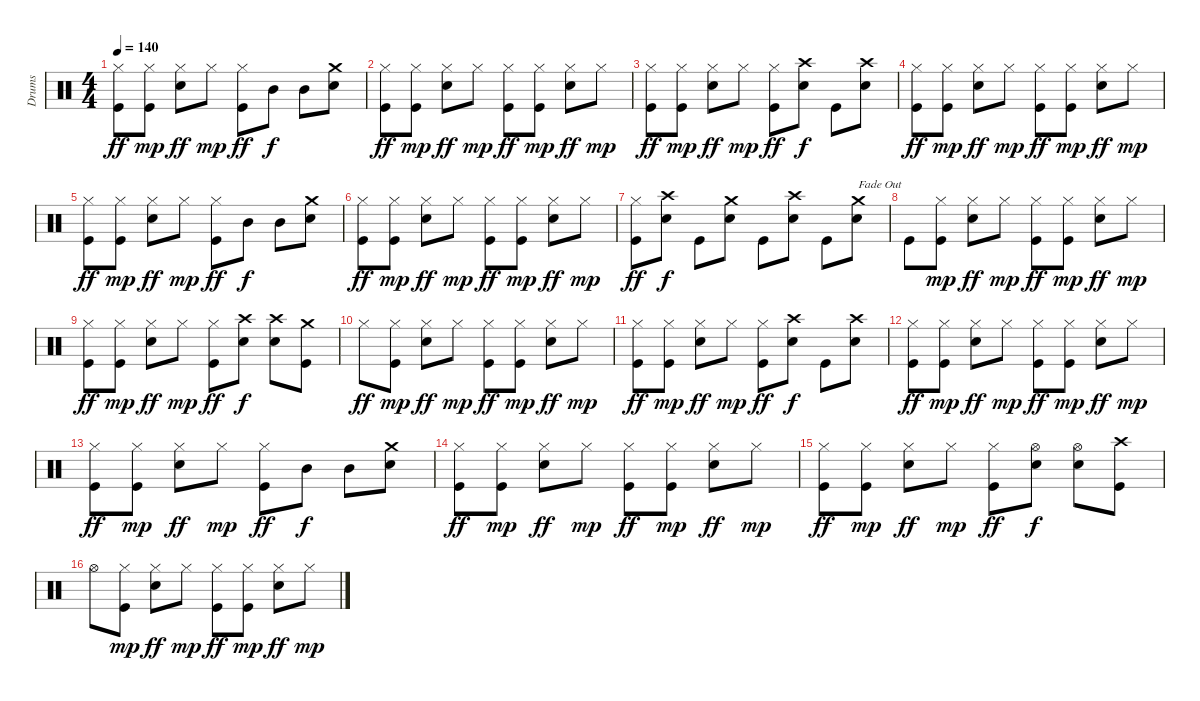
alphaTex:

\track ("Drums" "Drums") {instrument percussion}
\staff {score}
\articulation defaults
\ts (4 4)
\tempo 140
\clef neutral
\ks c
("Hi-Hat (closed)" "Kick (hit)").8{dy ff} ("Hi-Hat (closed)" "Kick (hit)").8{dy mp} ("Hi-Hat (closed)" "Snare (hit) 2").8{dy ff} "Hi-Hat (closed)".8{dy mp} ("Hi-Hat (closed)" "Kick (hit)").8{dy ff} "Mid Tom (hit)".8{dy f} "Mid Tom (hit)".8 ("Crash medium (hit)" "Snare (hit) 2").8 |
("Hi-Hat (closed)" "Kick (hit)").8{dy ff} ("Hi-Hat (closed)" "Kick (hit)").8{dy mp} ("Hi-Hat (closed)" "Snare (hit) 2").8{dy ff} "Hi-Hat (closed)".8{dy mp} ("Hi-Hat (closed)" "Kick (hit)").8{dy ff} ("Hi-Hat (closed)" "Kick (hit)").8{dy mp} ("Hi-Hat (closed)" "Snare (hit) 2").8{dy ff} "Hi-Hat (closed)".8{dy mp} |
("Hi-Hat (closed)" "Kick (hit)").8{dy ff} ("Hi-Hat (closed)" "Kick (hit)").8{dy mp} ("Hi-Hat (closed)" "Snare (hit) 2").8{dy ff} "Hi-Hat (closed)".8{dy mp} ("Hi-Hat (closed)" "Kick (hit)").8{dy ff} ("Crash high (hit)" "Snare (hit) 2").8{dy f} "Kick (hit)".8 ("Crash high (hit)" "Snare (hit) 2").8 |
("Hi-Hat (closed)" "Kick (hit)").8{dy ff} ("Hi-Hat (closed)" "Kick (hit)").8{dy mp} ("Hi-Hat (closed)" "Snare (hit) 2").8{dy ff} "Hi-Hat (closed)".8{dy mp} ("Hi-Hat (closed)" "Kick (hit)").8{dy ff} ("Hi-Hat (closed)" "Kick (hit)").8{dy mp} ("Hi-Hat (closed)" "Snare (hit) 2").8{dy ff} "Hi-Hat (closed)".8{dy mp} |
("Hi-Hat (closed)" "Kick (hit)").8{dy ff} ("Hi-Hat (closed)" "Kick (hit)").8{dy mp} ("Hi-Hat (closed)" "Snare (hit) 2").8{dy ff} "Hi-Hat (closed)".8{dy mp} ("Hi-Hat (closed)" "Kick (hit)").8{dy ff} "Mid Tom (hit)".8{dy f} "Mid Tom (hit)".8 ("Crash medium (hit)" "Snare (hit) 2").8 |
("Hi-Hat (closed)" "Kick (hit)").8{dy ff} ("Hi-Hat (closed)" "Kick (hit)").8{dy mp} ("Hi-Hat (closed)" "Snare (hit) 2").8{dy ff} "Hi-Hat (closed)".8{dy mp} ("Hi-Hat (closed)" "Kick (hit)").8{dy ff} ("Hi-Hat (closed)" "Kick (hit)").8{dy mp} ("Hi-Hat (closed)" "Snare (hit) 2").8{dy ff} "Hi-Hat (closed)".8{dy mp} |
("Hi-Hat (closed)" "Kick (hit)").8{dy ff} ("Crash high (hit)" "Snare (hit) 2").8{dy f} "Kick (hit)".8 ("Crash medium (hit)" "Snare (hit) 2").8 "Kick (hit)".8 ("Crash high (hit)" "Snare (hit) 2").8 "Kick (hit)".8 ("Crash medium (hit)" "Snare (hit) 2").8{txt "Fade Out"} |
"Kick (hit)".8 ("Hi-Hat (closed)" "Kick (hit)").8{dy mp} ("Hi-Hat (closed)" "Snare (hit) 2").8{dy ff} "Hi-Hat (closed)".8{dy mp} ("Hi-Hat (closed)" "Kick (hit)").8{dy ff} ("Hi-Hat (closed)" "Kick (hit)").8{dy mp} ("Hi-Hat (closed)" "Snare (hit) 2").8{dy ff} "Hi-Hat (closed)".8{dy mp} |
("Hi-Hat (closed)" "Kick (hit)").8{dy ff} ("Hi-Hat (closed)" "Kick (hit)").8{dy mp} ("Hi-Hat (closed)" "Snare (hit) 2").8{dy ff} "Hi-Hat (closed)".8{dy mp} ("Hi-Hat (closed)" "Kick (hit)").8{dy ff} ("Crash high (hit)" "Snare (hit) 2").8{dy f} ("Crash high (hit)" "Snare (hit) 2").8 ("Crash medium (hit)" "Kick (hit)").8 |
"Hi-Hat (closed)".8{dy ff} ("Hi-Hat (closed)" "Kick (hit)").8{dy mp} ("Hi-Hat (closed)" "Snare (hit) 2").8{dy ff} "Hi-Hat (closed)".8{dy mp} ("Hi-Hat (closed)" "Kick (hit)").8{dy ff} ("Hi-Hat (closed)" "Kick (hit)").8{dy mp} ("Hi-Hat (closed)" "Snare (hit) 2").8{dy ff} "Hi-Hat (closed)".8{dy mp} |
("Hi-Hat (closed)" "Kick (hit)").8{dy ff} ("Hi-Hat (closed)" "Kick (hit)").8{dy mp} ("Hi-Hat (closed)" "Snare (hit) 2").8{dy ff} "Hi-Hat (closed)".8{dy mp} ("Hi-Hat (closed)" "Kick (hit)").8{dy ff} ("Crash high (hit)" "Snare (hit) 2").8{dy f} "Kick (hit)".8 ("Crash high (hit)" "Snare (hit) 2").8 |
("Hi-Hat (closed)" "Kick (hit)").8{dy ff} ("Hi-Hat (closed)" "Kick (hit)").8{dy mp} ("Hi-Hat (closed)" "Snare (hit) 2").8{dy ff} "Hi-Hat (closed)".8{dy mp} ("Hi-Hat (closed)" "Kick (hit)").8{dy ff} ("Hi-Hat (closed)" "Kick (hit)").8{dy mp} ("Hi-Hat (closed)" "Snare (hit) 2").8{dy ff} "Hi-Hat (closed)".8{dy mp} |
("Hi-Hat (closed)" "Kick (hit)").8{dy ff} ("Hi-Hat (closed)" "Kick (hit)").8{dy mp} ("Hi-Hat (closed)" "Snare (hit) 2").8{dy ff} "Hi-Hat (closed)".8{dy mp} ("Hi-Hat (closed)" "Kick (hit)").8{dy ff} "Mid Tom (hit)".8{dy f} "Mid Tom (hit)".8 ("Crash medium (hit)" "Snare (hit) 2").8 |
("Hi-Hat (closed)" "Kick (hit)").8{dy ff} ("Hi-Hat (closed)" "Kick (hit)").8{dy mp} ("Hi-Hat (closed)" "Snare (hit) 2").8{dy ff} "Hi-Hat (closed)".8{dy mp} ("Hi-Hat (closed)" "Kick (hit)").8{dy ff} ("Hi-Hat (closed)" "Kick (hit)").8{dy mp} ("Hi-Hat (closed)" "Snare (hit) 2").8{dy ff} "Hi-Hat (closed)".8{dy mp} |
("Hi-Hat (closed)" "Kick (hit)").8{dy ff} ("Hi-Hat (closed)" "Kick (hit)").8{dy mp} ("Hi-Hat (closed)" "Snare (hit) 2").8{dy ff} "Hi-Hat (closed)".8{dy mp} ("Hi-Hat (closed)" "Kick (hit)").8{dy ff} ("Hi-Hat (open)" "Snare (hit) 2").8{dy f} ("Hi-Hat (open)" "Snare (hit) 2").8 ("Crash high (hit)" "Kick (hit)").8 |
"Hi-Hat (open)".8 ("Hi-Hat (closed)" "Kick (hit)").8{dy mp} ("Hi-Hat (closed)" "Snare (hit) 2").8{dy ff} "Hi-Hat (closed)".8{dy mp} ("Hi-Hat (closed)" "Kick (hit)").8{dy ff} ("Hi-Hat (closed)" "Kick (hit)").8{dy mp} ("Hi-Hat (closed)" "Snare (hit) 2").8{dy ff} "Hi-Hat (closed)".8{dy mp}
